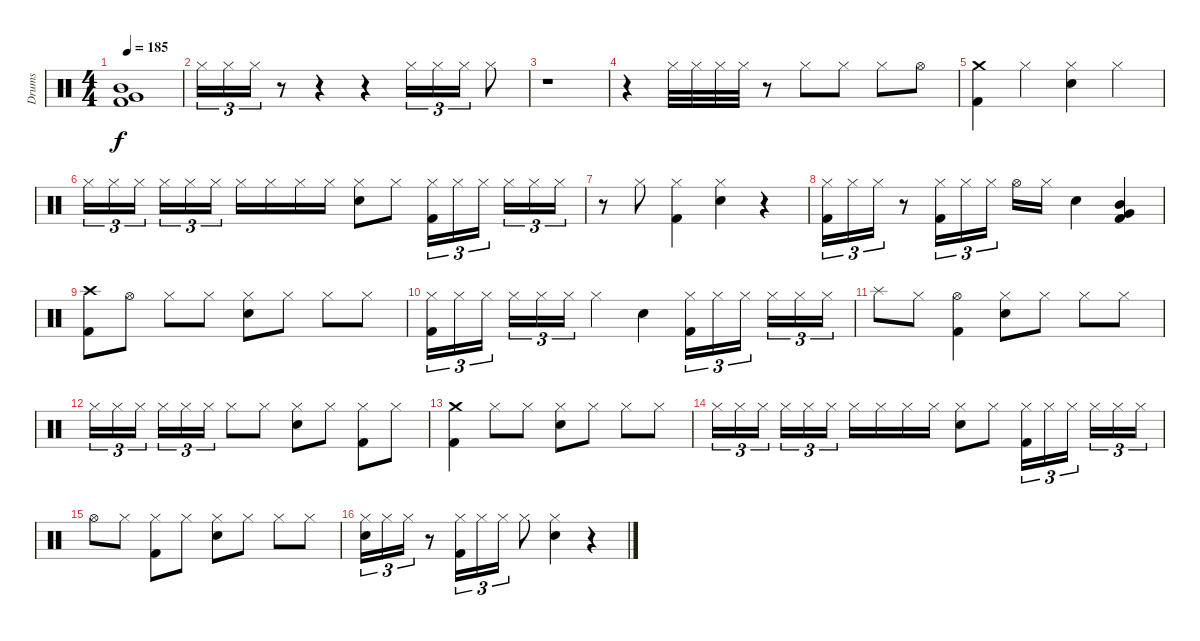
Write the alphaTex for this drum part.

\track ("Drums" "Drums") {instrument percussion}
\staff {score}
\articulation defaults
\ts (4 4)
\tempo 185
\clef neutral
\ks c
("Mid Tom (hit)" "Very Low Tom (hit)" "Kick (hit) 2").1{dy f} |
"Hi-Hat (closed)".16{tu (3 2)} "Hi-Hat (closed)".16{tu (3 2)} "Hi-Hat (closed)".16{tu (3 2)} r.8 r.4 r.4 "Hi-Hat (closed)".16{tu (3 2)} "Hi-Hat (closed)".16{tu (3 2)} "Hi-Hat (closed)".16{tu (3 2)} "Hi-Hat (closed)".8 |
r.1 |
r.4 "Hi-Hat (closed)".32 "Hi-Hat (closed)".32 "Hi-Hat (closed)".32 "Hi-Hat (closed)".32 r.8 "Hi-Hat (closed)".8 "Hi-Hat (closed)".8 "Hi-Hat (closed)".8 "Hi-Hat (open)".8 |
("Crash medium (hit)" "Kick (hit) 2").4 "Hi-Hat (closed)".4 ("Hi-Hat (closed)" "Snare (hit) 2").4 "Hi-Hat (closed)".4 |
"Hi-Hat (closed)".16{tu (3 2)} "Hi-Hat (closed)".16{tu (3 2)} "Hi-Hat (closed)".16{tu (3 2)} "Hi-Hat (closed)".16{tu (3 2)} "Hi-Hat (closed)".16{tu (3 2)} "Hi-Hat (closed)".16{tu (3 2)} "Hi-Hat (closed)".16 "Hi-Hat (closed)".16 "Hi-Hat (closed)".16 "Hi-Hat (closed)".16 ("Hi-Hat (closed)" "Snare (hit) 2").8 "Hi-Hat (closed)".8 ("Hi-Hat (closed)" "Kick (hit) 2").16{tu (3 2)} "Hi-Hat (closed)".16{tu (3 2)} "Hi-Hat (closed)".16{tu (3 2)} "Hi-Hat (closed)".16{tu (3 2)} "Hi-Hat (closed)".16{tu (3 2)} "Hi-Hat (closed)".16{tu (3 2)} |
r.8 "Hi-Hat (closed)".8 ("Hi-Hat (closed)" "Kick (hit) 2").4 ("Hi-Hat (closed)" "Snare (hit) 2").4 r.4 |
("Hi-Hat (closed)" "Kick (hit) 2").16{tu (3 2)} "Hi-Hat (closed)".16{tu (3 2)} "Hi-Hat (closed)".16{tu (3 2)} r.8 ("Hi-Hat (closed)" "Kick (hit) 2").16{tu (3 2)} "Hi-Hat (closed)".16{tu (3 2)} "Hi-Hat (closed)".16{tu (3 2)} "Hi-Hat (open)".16 "Hi-Hat (closed)".16 "Snare (hit) 2".4 ("Mid Tom (hit)" "Very Low Tom (hit)" "Kick (hit) 2").4 |
("Crash high (hit)" "Kick (hit) 2").8 "Hi-Hat (open)".8 "Hi-Hat (closed)".8 "Hi-Hat (closed)".8 ("Hi-Hat (closed)" "Snare (hit) 2").8 "Hi-Hat (closed)".8 "Hi-Hat (closed)".8 "Hi-Hat (closed)".8 |
("Hi-Hat (closed)" "Kick (hit) 2").16{tu (3 2)} "Hi-Hat (closed)".16{tu (3 2)} "Hi-Hat (closed)".16{tu (3 2)} "Hi-Hat (closed)".16{tu (3 2)} "Hi-Hat (closed)".16{tu (3 2)} "Hi-Hat (closed)".16{tu (3 2)} "Hi-Hat (closed)".4 "Snare (hit) 2".4 ("Hi-Hat (closed)" "Kick (hit) 2").16{tu (3 2)} "Hi-Hat (closed)".16{tu (3 2)} "Hi-Hat (closed)".16{tu (3 2)} "Hi-Hat (closed)".16{tu (3 2)} "Hi-Hat (closed)".16{tu (3 2)} "Hi-Hat (closed)".16{tu (3 2)} |
"Splash (hit)".8 "Hi-Hat (closed)".8 ("Hi-Hat (open)" "Kick (hit) 2").4 ("Hi-Hat (closed)" "Snare (hit) 2").8 "Hi-Hat (closed)".8 "Hi-Hat (closed)".8 "Hi-Hat (closed)".8 |
"Hi-Hat (closed)".16{tu (3 2)} "Hi-Hat (closed)".16{tu (3 2)} "Hi-Hat (closed)".16{tu (3 2)} "Hi-Hat (closed)".16{tu (3 2)} "Hi-Hat (closed)".16{tu (3 2)} "Hi-Hat (closed)".16{tu (3 2)} "Hi-Hat (closed)".8 "Hi-Hat (closed)".8 ("Hi-Hat (closed)" "Snare (hit) 2").8 "Hi-Hat (closed)".8 ("Hi-Hat (closed)" "Kick (hit) 2").8 "Hi-Hat (closed)".8 |
("Crash medium (hit)" "Kick (hit) 2").4 "Hi-Hat (closed)".8 "Hi-Hat (closed)".8 ("Hi-Hat (closed)" "Snare (hit) 2").8 "Hi-Hat (closed)".8 "Hi-Hat (closed)".8 "Hi-Hat (closed)".8 |
"Hi-Hat (closed)".16{tu (3 2)} "Hi-Hat (closed)".16{tu (3 2)} "Hi-Hat (closed)".16{tu (3 2)} "Hi-Hat (closed)".16{tu (3 2)} "Hi-Hat (closed)".16{tu (3 2)} "Hi-Hat (closed)".16{tu (3 2)} "Hi-Hat (closed)".16 "Hi-Hat (closed)".16 "Hi-Hat (closed)".16 "Hi-Hat (closed)".16 ("Hi-Hat (closed)" "Snare (hit) 2").8 "Hi-Hat (closed)".8 ("Hi-Hat (closed)" "Kick (hit) 2").16{tu (3 2)} "Hi-Hat (closed)".16{tu (3 2)} "Hi-Hat (closed)".16{tu (3 2)} "Hi-Hat (closed)".16{tu (3 2)} "Hi-Hat (closed)".16{tu (3 2)} "Hi-Hat (closed)".16{tu (3 2)} |
"Hi-Hat (open)".8 "Hi-Hat (closed)".8 ("Hi-Hat (closed)" "Kick (hit) 2").8 "Hi-Hat (closed)".8 ("Hi-Hat (closed)" "Snare (hit) 2").8 "Hi-Hat (closed)".8 "Hi-Hat (closed)".8 "Hi-Hat (closed)".8 |
("Hi-Hat (closed)" "Snare (hit) 2").16{tu (3 2)} "Hi-Hat (closed)".16{tu (3 2)} "Hi-Hat (closed)".16{tu (3 2)} r.8 ("Hi-Hat (closed)" "Kick (hit) 2").16{tu (3 2)} "Hi-Hat (closed)".16{tu (3 2)} "Hi-Hat (closed)".16{tu (3 2)} "Hi-Hat (closed)".8 ("Hi-Hat (closed)" "Snare (hit) 2").4 r.4
